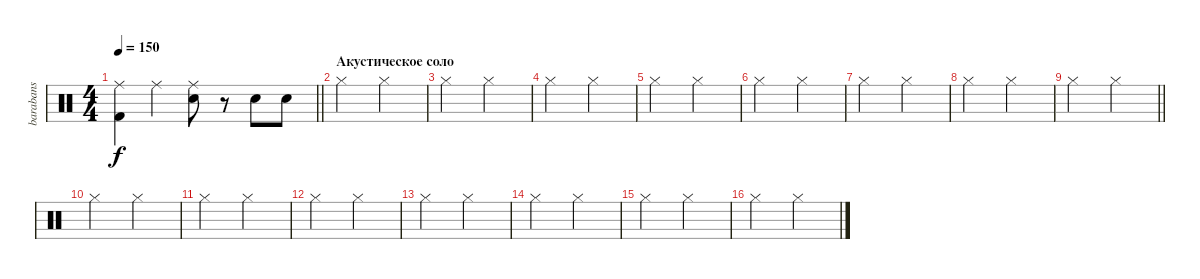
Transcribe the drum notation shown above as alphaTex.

\track ("barabans" "barabans") {instrument percussion}
\staff {score}
\articulation defaults
\ts (4 4)
\tempo 150
\clef neutral
\barLineRight lightlight
\ks c
("Ride (middle)" "Kick (hit) 2").4{dy f} "Ride (middle)".4 ("Ride (middle)" "Snare (hit) 2").8 r.8 "Snare (hit) 2".8 "Snare (hit) 2".8 |
\section ("" "Акустическое соло")
"Hi-Hat (closed)".2 "Hi-Hat (closed)".2 |
"Hi-Hat (closed)".2 "Hi-Hat (closed)".2 |
"Hi-Hat (closed)".2 "Hi-Hat (closed)".2 |
"Hi-Hat (closed)".2 "Hi-Hat (closed)".2 |
"Hi-Hat (closed)".2 "Hi-Hat (closed)".2 |
"Hi-Hat (closed)".2 "Hi-Hat (closed)".2 |
"Hi-Hat (closed)".2 "Hi-Hat (closed)".2 |
\barLineRight lightlight "Hi-Hat (closed)".2 "Hi-Hat (closed)".2
|
"Hi-Hat (closed)".2 "Hi-Hat (closed)".2 |
"Hi-Hat (closed)".2 "Hi-Hat (closed)".2 |
"Hi-Hat (closed)".2 "Hi-Hat (closed)".2 |
"Hi-Hat (closed)".2 "Hi-Hat (closed)".2 |
"Hi-Hat (closed)".2 "Hi-Hat (closed)".2 |
"Hi-Hat (closed)".2 "Hi-Hat (closed)".2 |
"Hi-Hat (closed)".2 "Hi-Hat (closed)".2
